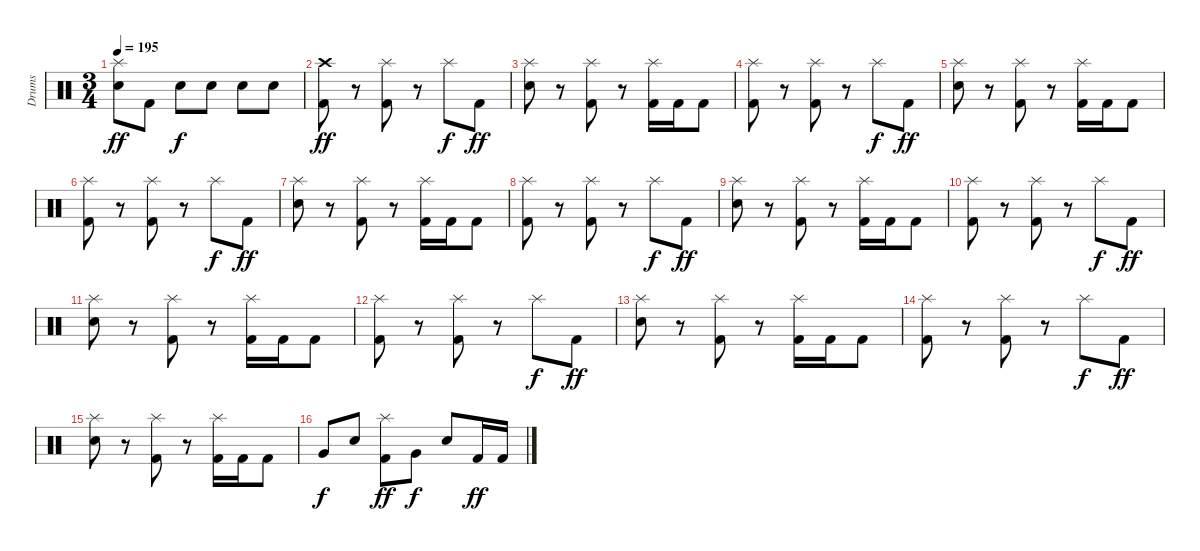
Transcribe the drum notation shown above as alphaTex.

\track ("Drums" "Drums") {instrument percussion}
\staff {score}
\articulation defaults
\ts (3 4)
\tempo 195
\clef neutral
\ks c
("Splash (hit)" "Electric Snare (hit)").8{dy ff} "Kick (hit) 2".8 "Electric Snare (hit)".8{dy f} "Electric Snare (hit)".8 "Electric Snare (hit)".8 "Electric Snare (hit)".8 |
("Crash high (hit)" "Kick (hit) 2").8{dy ff} r.8 ("Splash (hit)" "Kick (hit) 2").8 r.8 "Splash (hit)".8{dy f} "Kick (hit) 2".8{dy ff} |
("Splash (hit)" "Electric Snare (hit)").8 r.8 ("Splash (hit)" "Kick (hit) 2").8 r.8 ("Splash (hit)" "Kick (hit) 2").16 "Kick (hit) 2".16 "Kick (hit) 2".8 |
("Splash (hit)" "Kick (hit) 2").8 r.8 ("Splash (hit)" "Kick (hit) 2").8 r.8 "Splash (hit)".8{dy f} "Kick (hit) 2".8{dy ff} |
("Splash (hit)" "Electric Snare (hit)").8 r.8 ("Splash (hit)" "Kick (hit) 2").8 r.8 ("Splash (hit)" "Kick (hit) 2").16 "Kick (hit) 2".16 "Kick (hit) 2".8 |
("Splash (hit)" "Kick (hit) 2").8 r.8 ("Splash (hit)" "Kick (hit) 2").8 r.8 "Splash (hit)".8{dy f} "Kick (hit) 2".8{dy ff} |
("Splash (hit)" "Electric Snare (hit)").8 r.8 ("Splash (hit)" "Kick (hit) 2").8 r.8 ("Splash (hit)" "Kick (hit) 2").16 "Kick (hit) 2".16 "Kick (hit) 2".8 |
("Splash (hit)" "Kick (hit) 2").8 r.8 ("Splash (hit)" "Kick (hit) 2").8 r.8 "Splash (hit)".8{dy f} "Kick (hit) 2".8{dy ff} |
("Splash (hit)" "Electric Snare (hit)").8 r.8 ("Splash (hit)" "Kick (hit) 2").8 r.8 ("Splash (hit)" "Kick (hit) 2").16 "Kick (hit) 2".16 "Kick (hit) 2".8 |
("Splash (hit)" "Kick (hit) 2").8 r.8 ("Splash (hit)" "Kick (hit) 2").8 r.8 "Splash (hit)".8{dy f} "Kick (hit) 2".8{dy ff} |
("Splash (hit)" "Electric Snare (hit)").8 r.8 ("Splash (hit)" "Kick (hit) 2").8 r.8 ("Splash (hit)" "Kick (hit) 2").16 "Kick (hit) 2".16 "Kick (hit) 2".8 |
("Splash (hit)" "Kick (hit) 2").8 r.8 ("Splash (hit)" "Kick (hit) 2").8 r.8 "Splash (hit)".8{dy f} "Kick (hit) 2".8{dy ff} |
("Splash (hit)" "Electric Snare (hit)").8 r.8 ("Splash (hit)" "Kick (hit) 2").8 r.8 ("Splash (hit)" "Kick (hit) 2").16 "Kick (hit) 2".16 "Kick (hit) 2".8 |
("Splash (hit)" "Kick (hit) 2").8 r.8 ("Splash (hit)" "Kick (hit) 2").8 r.8 "Splash (hit)".8{dy f} "Kick (hit) 2".8{dy ff} |
("Splash (hit)" "Electric Snare (hit)").8 r.8 ("Splash (hit)" "Kick (hit) 2").8 r.8 ("Splash (hit)" "Kick (hit) 2").16 "Kick (hit) 2".16 "Kick (hit) 2".8 |
"Very Low Tom (hit)".8{dy f} "Electric Snare (hit)".8 ("Splash (hit)" "Kick (hit) 2").8{dy ff} "Very Low Tom (hit)".8{dy f} "Electric Snare (hit)".8 "Kick (hit) 2".16{dy ff} "Kick (hit) 2".16
